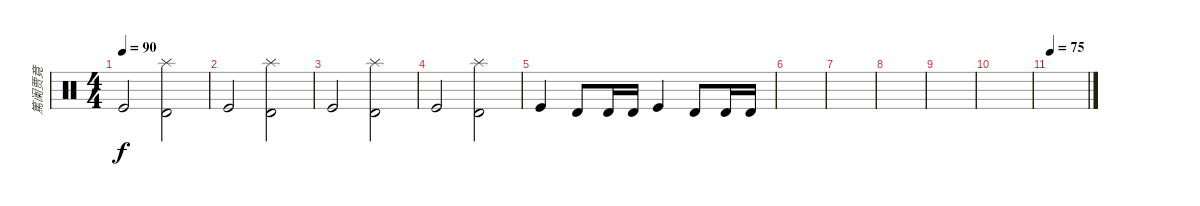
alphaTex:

\track ("篤阑贾竟" "篤阑贾竟") {instrument percussion}
\staff {score}
\articulation defaults
\ts (4 4)
\tempo 90
\clef neutral
\ks c "Kick (hit)".2{dy f}
("Timbale high (hit)" "Splash (hit)").2 |
"Kick (hit)".2 ("Timbale high (hit)" "Splash (hit)").2 |
"Kick (hit)".2 ("Timbale high (hit)" "Splash (hit)").2 |
"Kick (hit)".2 ("Timbale high (hit)" "Splash (hit)").2 |
"Kick (hit)".4 "Timbale high (hit)".8 "Timbale high (hit)".16 "Timbale high (hit)".16 "Kick (hit)".4 "Timbale high (hit)".8 "Timbale high (hit)".16 "Timbale high (hit)".16 |
|
|
|
|
|
\tempo 75
